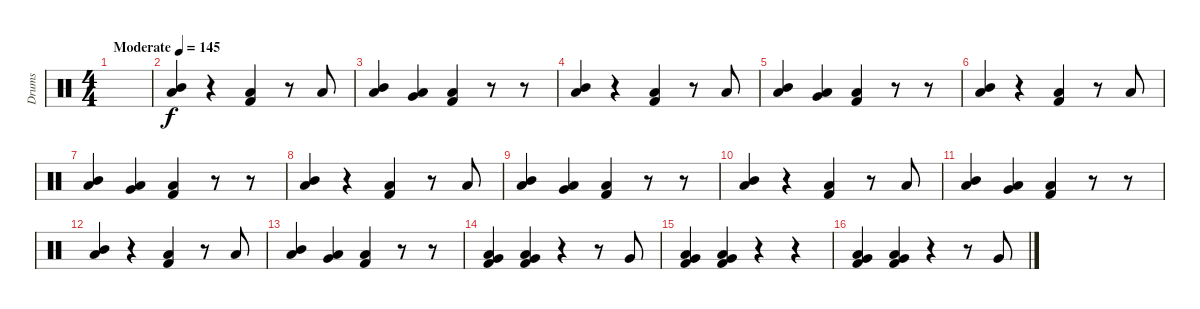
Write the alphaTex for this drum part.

\track ("Drums" "Drums") {instrument percussion}
\staff {score}
\articulation defaults
\ts (4 4)
\tempo (145 "Moderate")
\clef neutral
\ks c
|
("Mid Tom (hit)" "Low Tom (hit)").4 r.4 ("Low Floor Tom (hit)" "Kick (hit) 2").4 r.8 "Low Tom (hit)".8 |
("Mid Tom (hit)" "Low Tom (hit)").4 ("Very Low Tom (hit)" "Low Tom (hit)").4 ("Low Floor Tom (hit)" "Kick (hit) 2").4 r.8 r.8 |
("Mid Tom (hit)" "Low Tom (hit)").4 r.4 ("Low Floor Tom (hit)" "Kick (hit) 2").4 r.8 "Low Tom (hit)".8 |
("Mid Tom (hit)" "Low Tom (hit)").4 ("Very Low Tom (hit)" "Low Tom (hit)").4 ("Low Floor Tom (hit)" "Kick (hit) 2").4 r.8 r.8 |
("Mid Tom (hit)" "Low Tom (hit)").4 r.4 ("Low Floor Tom (hit)" "Kick (hit) 2").4 r.8 "Low Tom (hit)".8 |
("Mid Tom (hit)" "Low Tom (hit)").4 ("Very Low Tom (hit)" "Low Tom (hit)").4 ("Low Floor Tom (hit)" "Kick (hit) 2").4 r.8 r.8 |
("Mid Tom (hit)" "Low Tom (hit)").4 r.4 ("Low Floor Tom (hit)" "Kick (hit) 2").4 r.8 "Low Tom (hit)".8 |
("Mid Tom (hit)" "Low Tom (hit)").4 ("Very Low Tom (hit)" "Low Tom (hit)").4 ("Low Floor Tom (hit)" "Kick (hit) 2").4 r.8 r.8 |
("Mid Tom (hit)" "Low Tom (hit)").4 r.4 ("Low Floor Tom (hit)" "Kick (hit) 2").4 r.8 "Low Tom (hit)".8 |
("Mid Tom (hit)" "Low Tom (hit)").4 ("Very Low Tom (hit)" "Low Tom (hit)").4 ("Low Floor Tom (hit)" "Kick (hit) 2").4 r.8 r.8 |
("Mid Tom (hit)" "Low Tom (hit)").4 r.4 ("Low Floor Tom (hit)" "Kick (hit) 2").4 r.8 "Low Tom (hit)".8 |
("Mid Tom (hit)" "Low Tom (hit)").4 ("Very Low Tom (hit)" "Low Tom (hit)").4 ("Low Floor Tom (hit)" "Kick (hit) 2").4 r.8 r.8 |
("Low Floor Tom (hit)" "Very Low Tom (hit)" "Kick (hit) 2").4 ("Low Floor Tom (hit)" "Very Low Tom (hit)" "Kick (hit) 2").4 r.4 r.8 "Very Low Tom (hit)".8 |
("Low Floor Tom (hit)" "Very Low Tom (hit)" "Kick (hit) 2").4 ("Low Floor Tom (hit)" "Very Low Tom (hit)" "Kick (hit) 2").4 r.4 r.4 |
("Low Floor Tom (hit)" "Very Low Tom (hit)" "Kick (hit) 2").4 ("Low Floor Tom (hit)" "Very Low Tom (hit)" "Kick (hit) 2").4 r.4 r.8 "Very Low Tom (hit)".8
